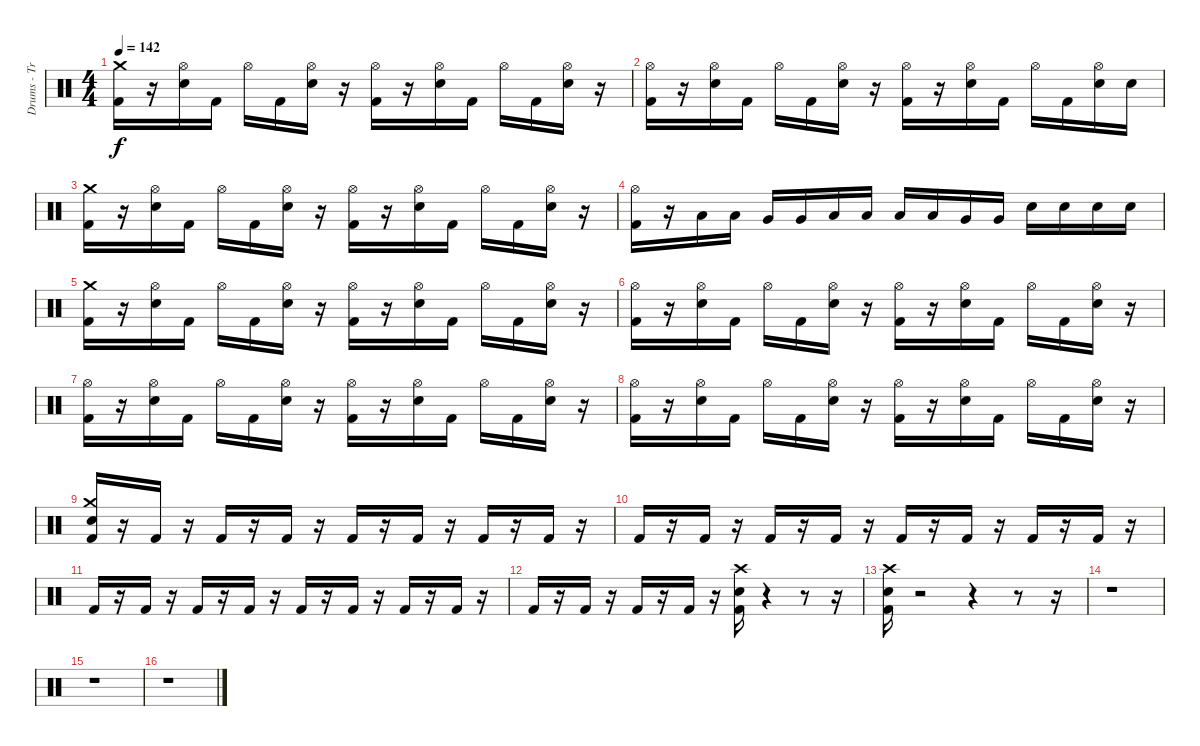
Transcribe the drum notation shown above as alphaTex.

\track ("Drums - Travis" "Drums - Tr") {instrument percussion}
\staff {score}
\articulation defaults
\ts (4 4)
\tempo 142
\clef neutral
\ks c
("Kick (hit) 2" "Crash medium (hit)").16{dy f} r.16 ("Electric Snare (hit)" "Hi-Hat (open)").16 "Kick (hit) 2".16 "Hi-Hat (open)".16 "Kick (hit) 2".16 ("Electric Snare (hit)" "Hi-Hat (open)").16 r.16 ("Kick (hit) 2" "Hi-Hat (open)").16 r.16 ("Electric Snare (hit)" "Hi-Hat (open)").16 "Kick (hit) 2".16 "Hi-Hat (open)".16 "Kick (hit) 2".16 ("Electric Snare (hit)" "Hi-Hat (open)").16 r.16 |
("Kick (hit) 2" "Hi-Hat (open)").16 r.16 ("Electric Snare (hit)" "Hi-Hat (open)").16 "Kick (hit) 2".16 "Hi-Hat (open)".16 "Kick (hit) 2".16 ("Electric Snare (hit)" "Hi-Hat (open)").16 r.16 ("Kick (hit) 2" "Hi-Hat (open)").16 r.16 ("Electric Snare (hit)" "Hi-Hat (open)").16 "Kick (hit) 2".16 "Hi-Hat (open)".16 "Kick (hit) 2".16 ("Electric Snare (hit)" "Hi-Hat (open)").16 "Electric Snare (hit)".16 |
("Kick (hit) 2" "Crash medium (hit)").16 r.16 ("Electric Snare (hit)" "Hi-Hat (open)").16 "Kick (hit) 2".16 "Hi-Hat (open)".16 "Kick (hit) 2".16 ("Electric Snare (hit)" "Hi-Hat (open)").16 r.16 ("Kick (hit) 2" "Hi-Hat (open)").16 r.16 ("Electric Snare (hit)" "Hi-Hat (open)").16 "Kick (hit) 2".16 "Hi-Hat (open)".16 "Kick (hit) 2".16 ("Electric Snare (hit)" "Hi-Hat (open)").16 r.16 |
("Kick (hit) 2" "Hi-Hat (open)").16 r.16 "Low Tom (hit)".16 "Low Tom (hit)".16 "Very Low Tom (hit)".16 "Very Low Tom (hit)".16 "Low Floor Tom (hit)".16 "Low Floor Tom (hit)".16 "Low Tom (hit)".16 "Low Tom (hit)".16 "Very Low Tom (hit)".16 "Very Low Tom (hit)".16 "Electric Snare (hit)".16 "Electric Snare (hit)".16 "Electric Snare (hit)".16 "Electric Snare (hit)".16 |
("Kick (hit) 2" "Crash medium (hit)").16 r.16 ("Electric Snare (hit)" "Hi-Hat (open)").16 "Kick (hit) 2".16 "Hi-Hat (open)".16 "Kick (hit) 2".16 ("Electric Snare (hit)" "Hi-Hat (open)").16 r.16 ("Kick (hit) 2" "Hi-Hat (open)").16 r.16 ("Electric Snare (hit)" "Hi-Hat (open)").16 "Kick (hit) 2".16 "Hi-Hat (open)".16 "Kick (hit) 2".16 ("Electric Snare (hit)" "Hi-Hat (open)").16 r.16 |
("Kick (hit) 2" "Hi-Hat (open)").16 r.16 ("Electric Snare (hit)" "Hi-Hat (open)").16 "Kick (hit) 2".16 "Hi-Hat (open)".16 "Kick (hit) 2".16 ("Electric Snare (hit)" "Hi-Hat (open)").16 r.16 ("Kick (hit) 2" "Hi-Hat (open)").16 r.16 ("Electric Snare (hit)" "Hi-Hat (open)").16 "Kick (hit) 2".16 "Hi-Hat (open)".16 "Kick (hit) 2".16 ("Electric Snare (hit)" "Hi-Hat (open)").16 r.16 |
("Kick (hit) 2" "Hi-Hat (open)").16 r.16 ("Electric Snare (hit)" "Hi-Hat (open)").16 "Kick (hit) 2".16 "Hi-Hat (open)".16 "Kick (hit) 2".16 ("Electric Snare (hit)" "Hi-Hat (open)").16 r.16 ("Kick (hit) 2" "Hi-Hat (open)").16 r.16 ("Electric Snare (hit)" "Hi-Hat (open)").16 "Kick (hit) 2".16 "Hi-Hat (open)".16 "Kick (hit) 2".16 ("Electric Snare (hit)" "Hi-Hat (open)").16 r.16 |
("Kick (hit) 2" "Hi-Hat (open)").16 r.16 ("Electric Snare (hit)" "Hi-Hat (open)").16 "Kick (hit) 2".16 "Hi-Hat (open)".16 "Kick (hit) 2".16 ("Electric Snare (hit)" "Hi-Hat (open)").16 r.16 ("Hi-Hat (open)" "Kick (hit) 2").16 r.16 ("Electric Snare (hit)" "Hi-Hat (open)").16 "Kick (hit) 2".16 "Hi-Hat (open)".16 "Kick (hit) 2".16 ("Electric Snare (hit)" "Hi-Hat (open)").16 r.16 |
("Electric Snare (hit)" "Kick (hit) 2" "Crash medium (hit)").16 r.16 "Kick (hit) 2".16 r.16 "Kick (hit) 2".16 r.16 "Kick (hit) 2".16 r.16 "Kick (hit) 2".16 r.16 "Kick (hit) 2".16 r.16 "Kick (hit) 2".16 r.16 "Kick (hit) 2".16 r.16 |
"Kick (hit) 2".16 r.16 "Kick (hit) 2".16 r.16 "Kick (hit) 2".16 r.16 "Kick (hit) 2".16 r.16 "Kick (hit) 2".16 r.16 "Kick (hit) 2".16 r.16 "Kick (hit) 2".16 r.16 "Kick (hit) 2".16 r.16 |
"Kick (hit) 2".16 r.16 "Kick (hit) 2".16 r.16 "Kick (hit) 2".16 r.16 "Kick (hit) 2".16 r.16 "Kick (hit) 2".16 r.16 "Kick (hit) 2".16 r.16 "Kick (hit) 2".16 r.16 "Kick (hit) 2".16 r.16 |
"Kick (hit) 2".16 r.16 "Kick (hit) 2".16 r.16 "Kick (hit) 2".16 r.16 "Kick (hit) 2".16 r.16 ("Kick (hit) 2" "Electric Snare (hit)" "Crash high (hit)").16 r.4 r.8 r.16 |
("Kick (hit) 2" "Electric Snare (hit)" "Crash high (hit)").16 r.2 r.4 r.8 r.16 |
r.1 |
r.1 |
r.1
